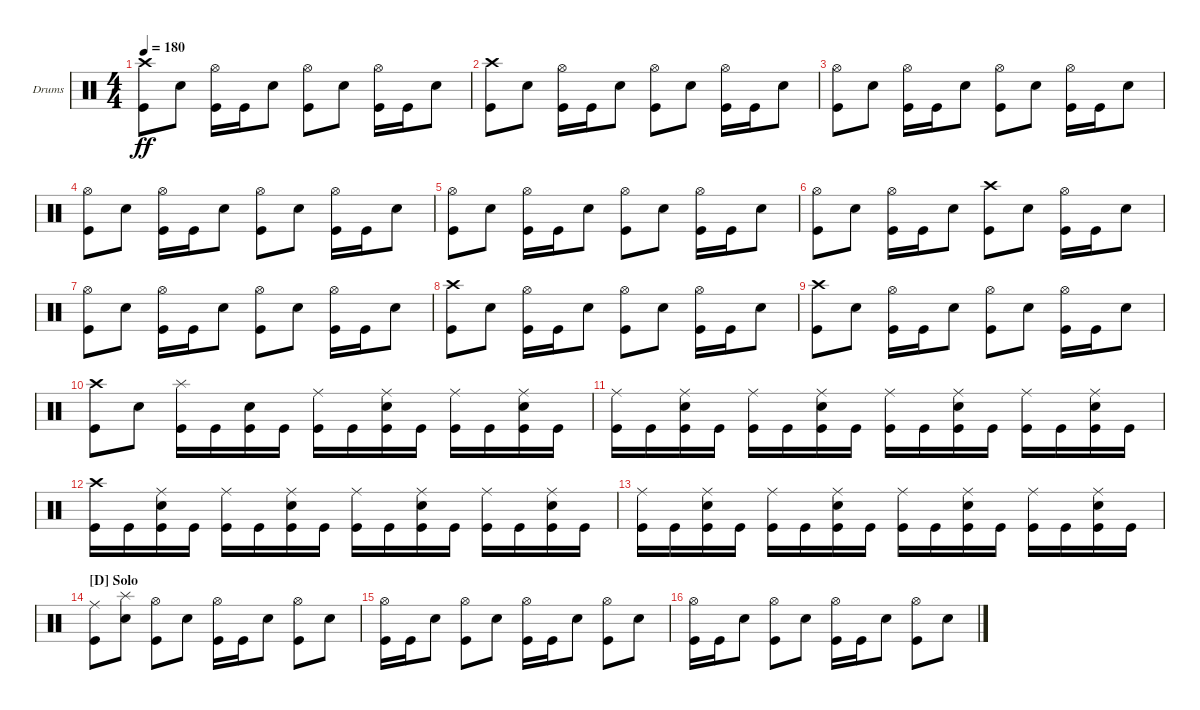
\bracketExtendMode groupsimilarinstruments
\firstSystemTrackNameOrientation horizontal
\otherSystemsTrackNameOrientation horizontal
\track ("Drumkit" "Drums") {instrument percussion}
\staff {score}
\articulation defaults
\ts (4 4)
\tempo 180
\clef neutral
\scale
1.02648
\ks c
("Kick (hit)" "Crash high (hit)").8{dy ff} "Snare (hit) 2".8 ("Kick (hit)" "Hi-Hat (open)").16 "Kick (hit)".16 "Snare (hit) 2".8 ("Kick (hit)" "Hi-Hat (open)").8 "Snare (hit) 2".8 ("Kick (hit)" "Hi-Hat (open)").16 "Kick (hit)".16 "Snare (hit) 2".8 |
\scale
0.973518 ("Kick (hit)" "Crash high (hit)").8 "Snare (hit) 2".8 ("Kick (hit)" "Hi-Hat (open)").16 "Kick (hit)".16 "Snare (hit) 2".8 ("Kick (hit)" "Hi-Hat (open)").8 "Snare (hit) 2".8 ("Kick (hit)" "Hi-Hat (open)").16 "Kick (hit)".16 "Snare (hit) 2".8 |
\scale
1.02648 ("Kick (hit)" "Hi-Hat (open)").8 "Snare (hit) 2".8 ("Kick (hit)" "Hi-Hat (open)").16 "Kick (hit)".16 "Snare (hit) 2".8 ("Kick (hit)" "Hi-Hat (open)").8 "Snare (hit) 2".8 ("Kick (hit)" "Hi-Hat (open)").16 "Kick (hit)".16 "Snare (hit) 2".8 |
\scale
0.973518 ("Kick (hit)" "Hi-Hat (open)").8 "Snare (hit) 2".8 ("Kick (hit)" "Hi-Hat (open)").16 "Kick (hit)".16 "Snare (hit) 2".8 ("Kick (hit)" "Hi-Hat (open)").8 "Snare (hit) 2".8 ("Kick (hit)" "Hi-Hat (open)").16 "Kick (hit)".16 "Snare (hit) 2".8 |
\scale
1.02648 ("Kick (hit)" "Hi-Hat (open)").8 "Snare (hit) 2".8 ("Kick (hit)" "Hi-Hat (open)").16 "Kick (hit)".16 "Snare (hit) 2".8 ("Kick (hit)" "Hi-Hat (open)").8 "Snare (hit) 2".8 ("Kick (hit)" "Hi-Hat (open)").16 "Kick (hit)".16 "Snare (hit) 2".8 |
\scale
0.973518 ("Kick (hit)" "Hi-Hat (open)").8 "Snare (hit) 2".8 ("Kick (hit)" "Hi-Hat (open)").16 "Kick (hit)".16 "Snare (hit) 2".8 ("Kick (hit)" "Crash high (hit)").8 "Snare (hit) 2".8 ("Kick (hit)" "Hi-Hat (open)").16 "Kick (hit)".16 "Snare (hit) 2".8 |
\scale
1.02648 ("Kick (hit)" "Hi-Hat (open)").8 "Snare (hit) 2".8 ("Kick (hit)" "Hi-Hat (open)").16 "Kick (hit)".16 "Snare (hit) 2".8 ("Kick (hit)" "Hi-Hat (open)").8 "Snare (hit) 2".8 ("Kick (hit)" "Hi-Hat (open)").16 "Kick (hit)".16 "Snare (hit) 2".8 |
\scale
0.973518 ("Kick (hit)" "Crash high (hit)").8 "Snare (hit) 2".8 ("Kick (hit)" "Hi-Hat (open)").16 "Kick (hit)".16 "Snare (hit) 2".8 ("Kick (hit)" "Hi-Hat (open)").8 "Snare (hit) 2".8 ("Kick (hit)" "Hi-Hat (open)").16 "Kick (hit)".16 "Snare (hit) 2".8 |
\scale
1.02648 ("Kick (hit)" "Crash high (hit)").8 "Snare (hit) 2".8 ("Kick (hit)" "Hi-Hat (open)").16 "Kick (hit)".16 "Snare (hit) 2".8 ("Kick (hit)" "Hi-Hat (open)").8 "Snare (hit) 2".8 ("Kick (hit)" "Hi-Hat (open)").16 "Kick (hit)".16 "Snare (hit) 2".8 |
\scale
0.973518 ("Kick (hit)" "Crash high (hit)").8 "Snare (hit) 2".8 ("Kick (hit)" "Splash (hit)").16 "Kick (hit)".16 ("Snare (hit) 2" "Kick (hit)").16 "Kick (hit)".16 ("Kick (hit)" "Ride (middle)").16 "Kick (hit)".16 ("Kick (hit)" "Snare (hit) 2" "Ride (middle)").16 "Kick (hit)".16 ("Kick (hit)" "Ride (middle)").16 "Kick (hit)".16 ("Snare (hit) 2" "Kick (hit)" "Ride (middle)").16 "Kick (hit)".16 |
\scale
1.02648 ("Kick (hit)" "Ride (middle)").16 "Kick (hit)".16 ("Snare (hit) 2" "Kick (hit)" "Ride (middle)").16 "Kick (hit)".16 ("Kick (hit)" "Ride (middle)").16 "Kick (hit)".16 ("Kick (hit)" "Snare (hit) 2" "Ride (middle)").16 "Kick (hit)".16 ("Kick (hit)" "Ride (middle)").16 "Kick (hit)".16 ("Snare (hit) 2" "Kick (hit)" "Ride (middle)").16 "Kick (hit)".16 ("Kick (hit)" "Ride (middle)").16 "Kick (hit)".16 ("Kick (hit)" "Snare (hit) 2" "Ride (middle)").16 "Kick (hit)".16 |
\scale
0.973518 ("Kick (hit)" "Crash high (hit)").16 "Kick (hit)".16 ("Snare (hit) 2" "Kick (hit)" "Ride (middle)").16 "Kick (hit)".16 ("Kick (hit)" "Ride (middle)").16 "Kick (hit)".16 ("Kick (hit)" "Snare (hit) 2" "Ride (middle)").16 "Kick (hit)".16 ("Kick (hit)" "Ride (middle)").16 "Kick (hit)".16 ("Snare (hit) 2" "Kick (hit)" "Ride (middle)").16 "Kick (hit)".16 ("Kick (hit)" "Ride (middle)").16 "Kick (hit)".16 ("Kick (hit)" "Snare (hit) 2" "Ride (middle)").16 "Kick (hit)".16 |
\scale
1.02648 ("Kick (hit)" "Ride (middle)").16 "Kick (hit)".16 ("Snare (hit) 2" "Kick (hit)" "Ride (middle)").16 "Kick (hit)".16 ("Kick (hit)" "Ride (middle)").16 "Kick (hit)".16 ("Kick (hit)" "Snare (hit) 2" "Ride (middle)").16 "Kick (hit)".16 ("Kick (hit)" "Ride (middle)").16 "Kick (hit)".16 ("Snare (hit) 2" "Kick (hit)" "Ride (middle)").16 "Kick (hit)".16 ("Kick (hit)" "Ride (middle)").16 "Kick (hit)".16 ("Kick (hit)" "Snare (hit) 2" "Ride (middle)").16 "Kick (hit)".16 |
\section ("D" "Solo")
\scale
0.973518 ("Kick (hit)" "Ride (middle)").8 ("Snare (hit) 2" "Splash (hit)").8 ("Kick (hit)" "Hi-Hat (open)").8 "Snare (hit) 2".8 ("Kick (hit)" "Hi-Hat (open)").16 "Kick (hit)".16 "Snare (hit) 2".8 ("Kick (hit)" "Hi-Hat (open)").8 "Snare (hit) 2".8 |
\scale
1.02648 ("Kick (hit)" "Hi-Hat (open)").16 "Kick (hit)".16 "Snare (hit) 2".8 ("Kick (hit)" "Hi-Hat (open)").8 "Snare (hit) 2".8 ("Kick (hit)" "Hi-Hat (open)").16 "Kick (hit)".16 "Snare (hit) 2".8 ("Kick (hit)" "Hi-Hat (open)").8 "Snare (hit) 2".8 |
\scale
0.973518 ("Kick (hit)" "Hi-Hat (open)").16 "Kick (hit)".16 "Snare (hit) 2".8 ("Kick (hit)" "Hi-Hat (open)").8 "Snare (hit) 2".8 ("Kick (hit)" "Hi-Hat (open)").16 "Kick (hit)".16 "Snare (hit) 2".8 ("Kick (hit)" "Hi-Hat (open)").8 "Snare (hit) 2".8
